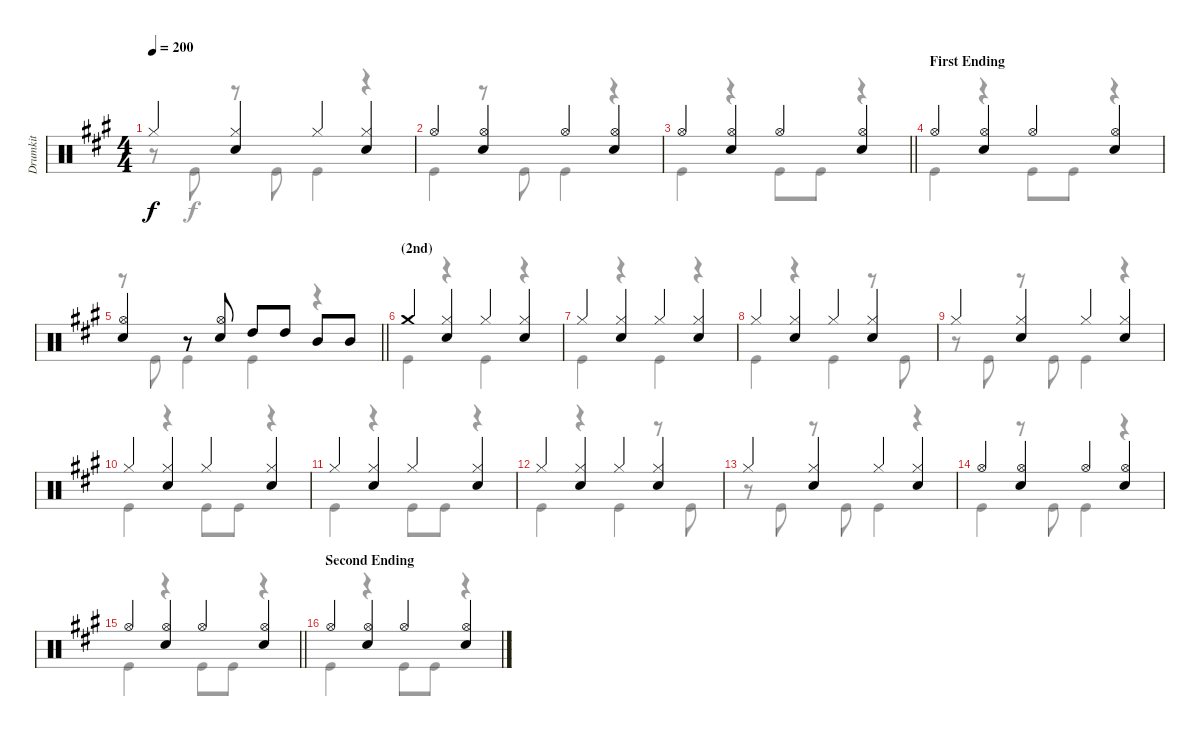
\track ("Drumkit" "Drumkit") {instrument percussion}
\staff {score}
\articulation defaults
\voice
\ts (4 4)
\tempo 200
\clef neutral
\ks a "Hi-Hat (closed)".4{dy f}
("Hi-Hat (closed)" "Snare (hit) 2").4 "Hi-Hat (closed)".4 ("Hi-Hat (closed)" "Snare (hit) 2").4 |
"Hi-Hat (open)".4 ("Hi-Hat (open)" "Snare (hit) 2").4 "Hi-Hat (open)".4 ("Hi-Hat (open)" "Snare (hit) 2").4 |
\barLineRight lightlight "Hi-Hat (open)".4
("Hi-Hat (open)" "Snare (hit) 2").4 "Hi-Hat (open)".4 ("Hi-Hat (open)" "Snare (hit) 2").4 |
\section ("" "First Ending")
"Hi-Hat (open)".4 ("Hi-Hat (open)" "Snare (hit) 2").4 "Hi-Hat (open)".4 ("Hi-Hat (open)" "Snare (hit) 2").4 |
\barLineRight lightlight
("Hi-Hat (open)" "Snare (hit) 2").4 r.8 ("Snare (hit) 2" "Hi-Hat (open)").8 "High Tom (hit)".8 "High Tom (hit)".8 "Mid Tom (hit)".8 "Mid Tom (hit)".8 |
\section ("" "(2nd)")
"Crash medium (hit)".4 ("Hi-Hat (closed)" "Snare (hit) 2").4 "Hi-Hat (closed)".4 ("Snare (hit) 2" "Hi-Hat (closed)").4 |
"Hi-Hat (closed)".4 ("Hi-Hat (closed)" "Snare (hit) 2").4 "Hi-Hat (closed)".4 ("Hi-Hat (closed)" "Snare (hit) 2").4 |
"Hi-Hat (closed)".4 ("Hi-Hat (closed)" "Snare (hit) 2").4 "Hi-Hat (closed)".4 ("Hi-Hat (closed)" "Snare (hit) 2").4 |
"Hi-Hat (closed)".4 ("Hi-Hat (closed)" "Snare (hit) 2").4 "Hi-Hat (closed)".4 ("Hi-Hat (closed)" "Snare (hit) 2").4 |
"Hi-Hat (closed)".4 ("Hi-Hat (closed)" "Snare (hit) 2").4 "Hi-Hat (closed)".4 ("Hi-Hat (closed)" "Snare (hit) 2").4 |
"Hi-Hat (closed)".4 ("Hi-Hat (closed)" "Snare (hit) 2").4 "Hi-Hat (closed)".4 ("Hi-Hat (closed)" "Snare (hit) 2").4 |
"Hi-Hat (closed)".4 ("Hi-Hat (closed)" "Snare (hit) 2").4 "Hi-Hat (closed)".4 ("Hi-Hat (closed)" "Snare (hit) 2").4 |
"Hi-Hat (closed)".4 ("Hi-Hat (closed)" "Snare (hit) 2").4 "Hi-Hat (closed)".4 ("Hi-Hat (closed)" "Snare (hit) 2").4 |
"Hi-Hat (open)".4 ("Hi-Hat (open)" "Snare (hit) 2").4 "Hi-Hat (open)".4 ("Hi-Hat (open)" "Snare (hit) 2").4 |
\barLineRight lightlight "Hi-Hat (open)".4
("Hi-Hat (open)" "Snare (hit) 2").4 "Hi-Hat (open)".4 ("Hi-Hat (open)" "Snare (hit) 2").4 |
\section ("" "Second Ending")
"Hi-Hat (open)".4 ("Hi-Hat (open)" "Snare (hit) 2").4 "Hi-Hat (open)".4 ("Hi-Hat (open)" "Snare (hit) 2").4
\voice
\clef neutral
\ottava regular
\simile none
\ks a
r.8{dy f} "Kick (hit)".8 r.8 "Kick (hit)".8 "Kick (hit)".4 r.4 |
"Kick (hit)".4 r.8 "Kick (hit)".8 "Kick (hit)".4 r.4 |
\barLineRight lightlight "Kick (hit)".4
r.4 "Kick (hit)".8 "Kick (hit)".8 r.4 |
"Kick (hit)".4 r.4 "Kick (hit)".8 "Kick (hit)".8 r.4 |
\barLineRight lightlight
r.8 "Kick (hit)".8 "Kick (hit)".4 "Kick (hit)".4 r.4 |
"Kick (hit)".4 r.4 "Kick (hit)".4 r.4 |
"Kick (hit)".4 r.4 "Kick (hit)".4 r.4 |
"Kick (hit)".4 r.4 "Kick (hit)".4 r.8 "Kick (hit)".8 |
r.8 "Kick (hit)".8 r.8 "Kick (hit)".8 "Kick (hit)".4 r.4 |
"Kick (hit)".4 r.4 "Kick (hit)".8 "Kick (hit)".8 r.4 |
"Kick (hit)".4 r.4 "Kick (hit)".8 "Kick (hit)".8 r.4 |
"Kick (hit)".4 r.4 "Kick (hit)".4 r.8 "Kick (hit)".8 |
r.8 "Kick (hit)".8 r.8 "Kick (hit)".8 "Kick (hit)".4 r.4 |
"Kick (hit)".4 r.8 "Kick (hit)".8 "Kick (hit)".4 r.4 |
\barLineRight lightlight "Kick (hit)".4
r.4 "Kick (hit)".8 "Kick (hit)".8 r.4 |
"Kick (hit)".4 r.4 "Kick (hit)".8 "Kick (hit)".8 r.4
